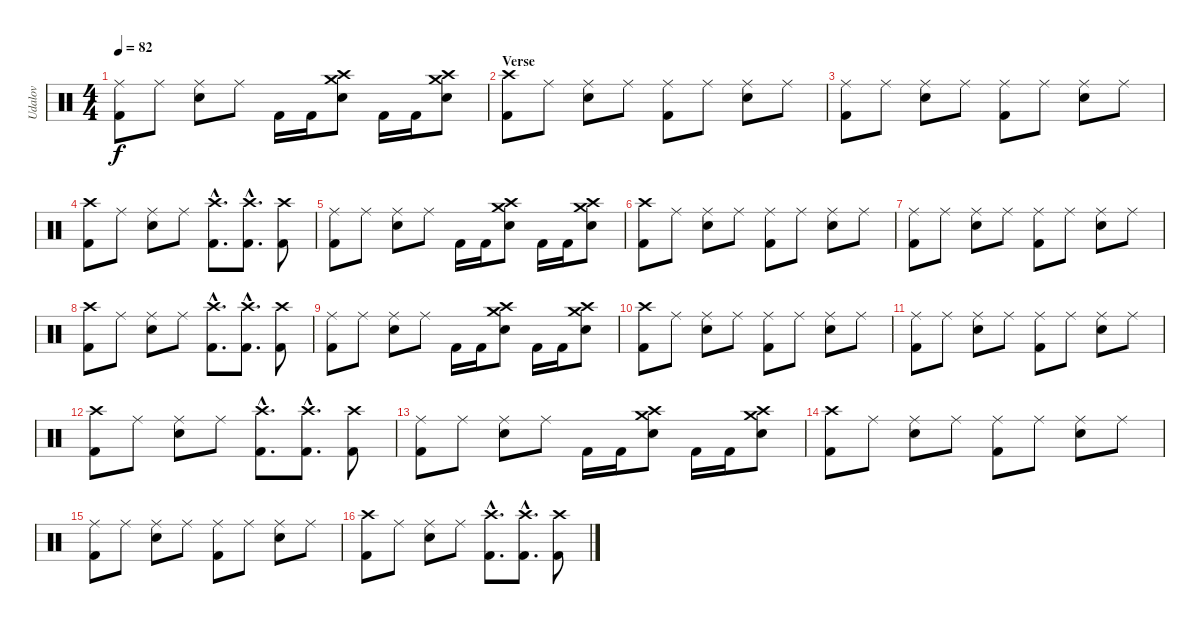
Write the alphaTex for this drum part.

\track ("Udalov" "Udalov") {instrument percussion}
\staff {score}
\articulation defaults
\ts (4 4)
\tempo 82
\clef neutral
\ks c
("Kick (hit) 2" "Ride (middle)").8{dy f} "Ride (middle)".8 ("Snare (hit) 2" "Ride (middle)").8 "Ride (middle)".8 "Kick (hit) 2".16 "Kick (hit) 2".16 ("Snare (hit) 2" "Crash high (hit)" "Crash medium (hit)").8 "Kick (hit) 2".16 "Kick (hit) 2".16 ("Snare (hit) 2" "Crash high (hit)" "Crash medium (hit)").8 |
\section ("" "Verse")
("Kick (hit) 2" "Crash high (hit)").8 "Ride (middle)".8 ("Snare (hit) 2" "Ride (middle)").8 "Ride (middle)".8 ("Kick (hit) 2" "Ride (middle)").8 "Ride (middle)".8 ("Snare (hit) 2" "Ride (middle)").8 "Ride (middle)".8 |
("Kick (hit) 2" "Ride (middle)").8 "Ride (middle)".8 ("Snare (hit) 2" "Ride (middle)").8 "Ride (middle)".8 ("Kick (hit) 2" "Ride (middle)").8 "Ride (middle)".8 ("Snare (hit) 2" "Ride (middle)").8 "Ride (middle)".8 |
("Kick (hit) 2" "Crash high (hit)").8 "Ride (middle)".8 ("Snare (hit) 2" "Ride (middle)").8 "Ride (middle)".8 ("Kick (hit) 2"{hac} "Crash high (hit)"{hac}).8{d} ("Kick (hit) 2"{hac} "Crash high (hit)"{hac}).8{d} ("Kick (hit) 2" "Crash high (hit)").8 |
("Kick (hit) 2" "Ride (middle)").8 "Ride (middle)".8 ("Snare (hit) 2" "Ride (middle)").8 "Ride (middle)".8 "Kick (hit) 2".16 "Kick (hit) 2".16 ("Snare (hit) 2" "Crash high (hit)" "Crash medium (hit)").8 "Kick (hit) 2".16 "Kick (hit) 2".16 ("Snare (hit) 2" "Crash high (hit)" "Crash medium (hit)").8 |
("Kick (hit) 2" "Crash high (hit)").8 "Ride (middle)".8 ("Snare (hit) 2" "Ride (middle)").8 "Ride (middle)".8 ("Kick (hit) 2" "Ride (middle)").8 "Ride (middle)".8 ("Snare (hit) 2" "Ride (middle)").8 "Ride (middle)".8 |
("Kick (hit) 2" "Ride (middle)").8 "Ride (middle)".8 ("Snare (hit) 2" "Ride (middle)").8 "Ride (middle)".8 ("Kick (hit) 2" "Ride (middle)").8 "Ride (middle)".8 ("Snare (hit) 2" "Ride (middle)").8 "Ride (middle)".8 |
("Kick (hit) 2" "Crash high (hit)").8 "Ride (middle)".8 ("Snare (hit) 2" "Ride (middle)").8 "Ride (middle)".8 ("Kick (hit) 2"{hac} "Crash high (hit)"{hac}).8{d} ("Kick (hit) 2"{hac} "Crash high (hit)"{hac}).8{d} ("Kick (hit) 2" "Crash high (hit)").8 |
("Kick (hit) 2" "Ride (middle)").8 "Ride (middle)".8 ("Snare (hit) 2" "Ride (middle)").8 "Ride (middle)".8 "Kick (hit) 2".16 "Kick (hit) 2".16 ("Snare (hit) 2" "Crash high (hit)" "Crash medium (hit)").8 "Kick (hit) 2".16 "Kick (hit) 2".16 ("Snare (hit) 2" "Crash high (hit)" "Crash medium (hit)").8 |
("Kick (hit) 2" "Crash high (hit)").8 "Ride (middle)".8 ("Snare (hit) 2" "Ride (middle)").8 "Ride (middle)".8 ("Kick (hit) 2" "Ride (middle)").8 "Ride (middle)".8 ("Snare (hit) 2" "Ride (middle)").8 "Ride (middle)".8 |
("Kick (hit) 2" "Ride (middle)").8 "Ride (middle)".8 ("Snare (hit) 2" "Ride (middle)").8 "Ride (middle)".8 ("Kick (hit) 2" "Ride (middle)").8 "Ride (middle)".8 ("Snare (hit) 2" "Ride (middle)").8 "Ride (middle)".8 |
("Kick (hit) 2" "Crash high (hit)").8 "Ride (middle)".8 ("Snare (hit) 2" "Ride (middle)").8 "Ride (middle)".8 ("Kick (hit) 2"{hac} "Crash high (hit)"{hac}).8{d} ("Kick (hit) 2"{hac} "Crash high (hit)"{hac}).8{d} ("Kick (hit) 2" "Crash high (hit)").8 |
("Kick (hit) 2" "Ride (middle)").8 "Ride (middle)".8 ("Snare (hit) 2" "Ride (middle)").8 "Ride (middle)".8 "Kick (hit) 2".16 "Kick (hit) 2".16 ("Snare (hit) 2" "Crash high (hit)" "Crash medium (hit)").8 "Kick (hit) 2".16 "Kick (hit) 2".16 ("Snare (hit) 2" "Crash high (hit)" "Crash medium (hit)").8 |
("Kick (hit) 2" "Crash high (hit)").8 "Ride (middle)".8 ("Snare (hit) 2" "Ride (middle)").8 "Ride (middle)".8 ("Kick (hit) 2" "Ride (middle)").8 "Ride (middle)".8 ("Snare (hit) 2" "Ride (middle)").8 "Ride (middle)".8 |
("Kick (hit) 2" "Ride (middle)").8 "Ride (middle)".8 ("Snare (hit) 2" "Ride (middle)").8 "Ride (middle)".8 ("Kick (hit) 2" "Ride (middle)").8 "Ride (middle)".8 ("Snare (hit) 2" "Ride (middle)").8 "Ride (middle)".8 |
("Kick (hit) 2" "Crash high (hit)").8 "Ride (middle)".8 ("Snare (hit) 2" "Ride (middle)").8 "Ride (middle)".8 ("Kick (hit) 2"{hac} "Crash high (hit)"{hac}).8{d} ("Kick (hit) 2"{hac} "Crash high (hit)"{hac}).8{d} ("Kick (hit) 2" "Crash high (hit)").8
